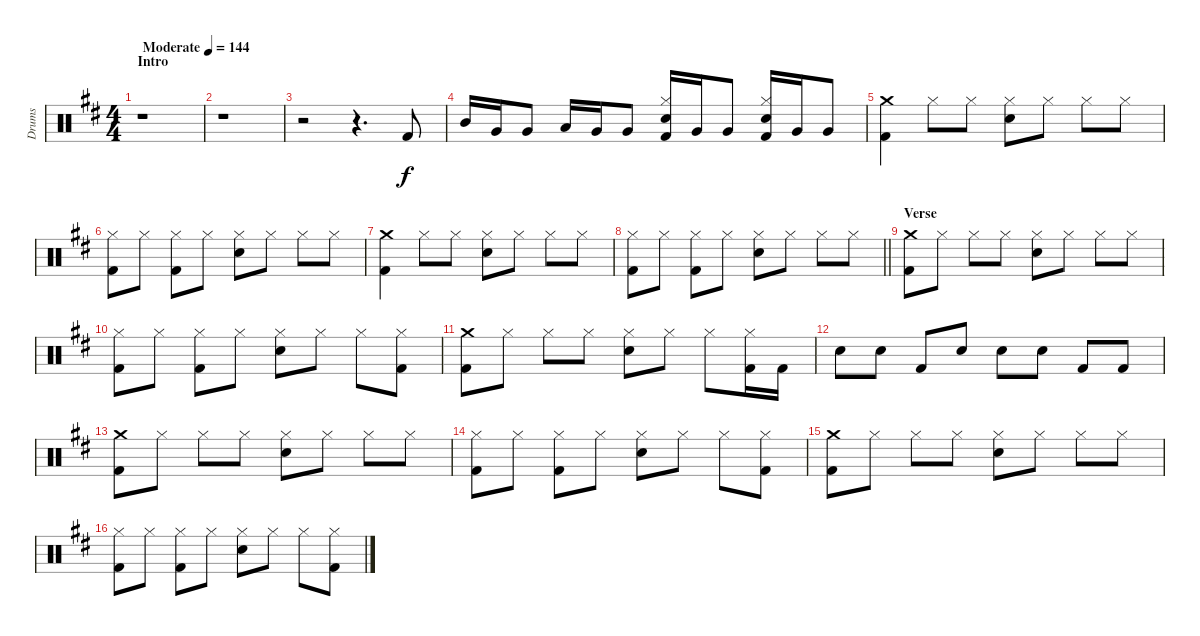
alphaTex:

\track ("Drums" "Drums") {instrument percussion}
\staff {score}
\articulation defaults
\ts (4 4)
\section ("" "Intro")
\tempo (144 "Moderate")
\clef neutral
\ks d
r.1{dy f} |
r.1 |
r.2 r.4{d} "Kick (hit) 2".8 |
"Mid Tom (hit)".16 "Very Low Tom (hit)".16 "Very Low Tom (hit)".8 "Low Tom (hit)".16 "Very Low Tom (hit)".16 "Very Low Tom (hit)".8 ("Hi-Hat (closed)" "Snare (hit) 2" "Kick (hit) 2").16 "Very Low Tom (hit)".16 "Very Low Tom (hit)".8 ("Hi-Hat (closed)" "Snare (hit) 2" "Kick (hit) 2").16 "Very Low Tom (hit)".16 "Very Low Tom (hit)".8 |
("Crash medium (hit)" "Kick (hit) 2").4 "Hi-Hat (closed)".8 "Hi-Hat (closed)".8 ("Hi-Hat (closed)" "Snare (hit) 2").8 "Hi-Hat (closed)".8 "Hi-Hat (closed)".8 "Hi-Hat (closed)".8 |
("Hi-Hat (closed)" "Kick (hit) 2").8 "Hi-Hat (closed)".8 ("Hi-Hat (closed)" "Kick (hit) 2").8 "Hi-Hat (closed)".8 ("Hi-Hat (closed)" "Snare (hit) 2").8 "Hi-Hat (closed)".8 "Hi-Hat (closed)".8 "Hi-Hat (closed)".8 |
("Crash medium (hit)" "Kick (hit) 2").4 "Hi-Hat (closed)".8 "Hi-Hat (closed)".8 ("Hi-Hat (closed)" "Snare (hit) 2").8 "Hi-Hat (closed)".8 "Hi-Hat (closed)".8 "Hi-Hat (closed)".8 |
\barLineRight lightlight
("Hi-Hat (closed)" "Kick (hit) 2").8 "Hi-Hat (closed)".8 ("Hi-Hat (closed)" "Kick (hit) 2").8 "Hi-Hat (closed)".8 ("Hi-Hat (closed)" "Snare (hit) 2").8 "Hi-Hat (closed)".8 "Hi-Hat (closed)".8 "Hi-Hat (closed)".8 |
\section ("" "Verse")
("Crash medium (hit)" "Kick (hit) 2").8 "Hi-Hat (closed)".8 "Hi-Hat (closed)".8 "Hi-Hat (closed)".8 ("Hi-Hat (closed)" "Snare (hit) 2").8 "Hi-Hat (closed)".8 "Hi-Hat (closed)".8 "Hi-Hat (closed)".8 |
("Hi-Hat (closed)" "Kick (hit) 2").8 "Hi-Hat (closed)".8 ("Hi-Hat (closed)" "Kick (hit) 2").8 "Hi-Hat (closed)".8 ("Hi-Hat (closed)" "Snare (hit) 2").8 "Hi-Hat (closed)".8 "Hi-Hat (closed)".8 ("Hi-Hat (closed)" "Kick (hit) 2").8 |
("Crash medium (hit)" "Kick (hit) 2").8 "Hi-Hat (closed)".8 "Hi-Hat (closed)".8 "Hi-Hat (closed)".8 ("Hi-Hat (closed)" "Snare (hit) 2").8 "Hi-Hat (closed)".8 "Hi-Hat (closed)".8 ("Hi-Hat (closed)" "Kick (hit) 2").16 "Kick (hit) 2".16 |
"Snare (hit) 2".8 "Snare (hit) 2".8 "Kick (hit) 2".8 "Snare (hit) 2".8 "Snare (hit) 2".8 "Snare (hit) 2".8 "Kick (hit) 2".8 "Kick (hit) 2".8 |
("Crash medium (hit)" "Kick (hit) 2").8 "Hi-Hat (closed)".8 "Hi-Hat (closed)".8 "Hi-Hat (closed)".8 ("Hi-Hat (closed)" "Snare (hit) 2").8 "Hi-Hat (closed)".8 "Hi-Hat (closed)".8 "Hi-Hat (closed)".8 |
("Hi-Hat (closed)" "Kick (hit) 2").8 "Hi-Hat (closed)".8 ("Hi-Hat (closed)" "Kick (hit) 2").8 "Hi-Hat (closed)".8 ("Hi-Hat (closed)" "Snare (hit) 2").8 "Hi-Hat (closed)".8 "Hi-Hat (closed)".8 ("Hi-Hat (closed)" "Kick (hit) 2").8 |
("Crash medium (hit)" "Kick (hit) 2").8 "Hi-Hat (closed)".8 "Hi-Hat (closed)".8 "Hi-Hat (closed)".8 ("Hi-Hat (closed)" "Snare (hit) 2").8 "Hi-Hat (closed)".8 "Hi-Hat (closed)".8 "Hi-Hat (closed)".8 |
("Hi-Hat (closed)" "Kick (hit) 2").8 "Hi-Hat (closed)".8 ("Hi-Hat (closed)" "Kick (hit) 2").8 "Hi-Hat (closed)".8 ("Hi-Hat (closed)" "Snare (hit) 2").8 "Hi-Hat (closed)".8 "Hi-Hat (closed)".8 ("Hi-Hat (closed)" "Kick (hit) 2").8
